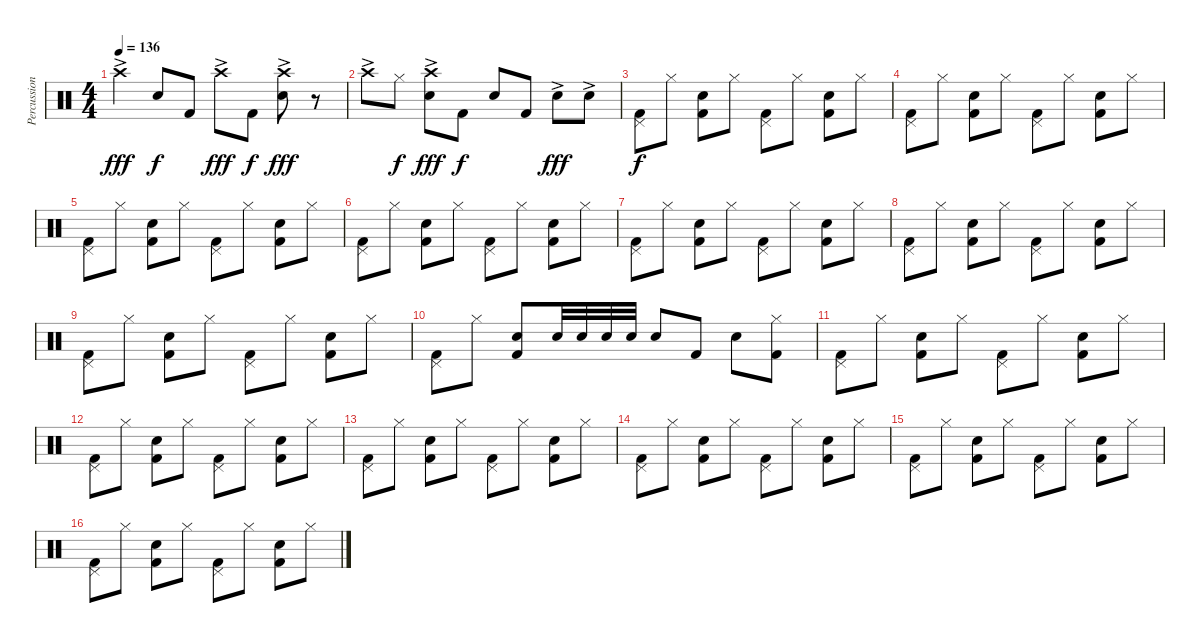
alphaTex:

\track ("Percussion" "Percussion") {instrument percussion}
\staff {score}
\articulation defaults
\ts (4 4)
\tempo 136
\clef neutral
\ks c "Crash high (hit)"{ac}.4{dy fff} "Snare (hit) 2".8{dy f} "Kick (hit) 2".8 "Crash high (hit)"{ac}.8{dy fff} "Kick (hit) 2".8{dy f}
("Crash high (hit)"{ac} "Snare (hit) 2").8{dy fff} r.8 |
"Crash high (hit)"{ac}.8 "Hi-Hat (closed)".8{dy f} ("Crash high (hit)"{ac} "Snare (hit) 2").8{dy fff} "Kick (hit) 2".8{dy f} "Snare (hit) 2".8 "Kick (hit) 2".8 "Snare (hit) 2"{ac}.8{dy fff} "Snare (hit) 2"{ac}.8 |
("Pedal Hi-Hat (hit)" "Kick (hit) 2").8{dy f} "Hi-Hat (closed)".8 ("Snare (hit) 2" "Kick (hit) 2").8 "Hi-Hat (closed)".8 ("Pedal Hi-Hat (hit)" "Kick (hit) 2").8 "Hi-Hat (closed)".8 ("Snare (hit) 2" "Kick (hit) 2").8 "Hi-Hat (closed)".8 |
("Pedal Hi-Hat (hit)" "Kick (hit) 2").8 "Hi-Hat (closed)".8 ("Snare (hit) 2" "Kick (hit) 2").8 "Hi-Hat (closed)".8 ("Pedal Hi-Hat (hit)" "Kick (hit) 2").8 "Hi-Hat (closed)".8 ("Snare (hit) 2" "Kick (hit) 2").8 "Hi-Hat (closed)".8 |
("Pedal Hi-Hat (hit)" "Kick (hit) 2").8 "Hi-Hat (closed)".8 ("Snare (hit) 2" "Kick (hit) 2").8 "Hi-Hat (closed)".8 ("Pedal Hi-Hat (hit)" "Kick (hit) 2").8 "Hi-Hat (closed)".8 ("Snare (hit) 2" "Kick (hit) 2").8 "Hi-Hat (closed)".8 |
("Pedal Hi-Hat (hit)" "Kick (hit) 2").8 "Hi-Hat (closed)".8 ("Snare (hit) 2" "Kick (hit) 2").8 "Hi-Hat (closed)".8 ("Pedal Hi-Hat (hit)" "Kick (hit) 2").8 "Hi-Hat (closed)".8 ("Snare (hit) 2" "Kick (hit) 2").8 "Hi-Hat (closed)".8 |
("Pedal Hi-Hat (hit)" "Kick (hit) 2").8 "Hi-Hat (closed)".8 ("Snare (hit) 2" "Kick (hit) 2").8 "Hi-Hat (closed)".8 ("Pedal Hi-Hat (hit)" "Kick (hit) 2").8 "Hi-Hat (closed)".8 ("Snare (hit) 2" "Kick (hit) 2").8 "Hi-Hat (closed)".8 |
("Pedal Hi-Hat (hit)" "Kick (hit) 2").8 "Hi-Hat (closed)".8 ("Snare (hit) 2" "Kick (hit) 2").8 "Hi-Hat (closed)".8 ("Pedal Hi-Hat (hit)" "Kick (hit) 2").8 "Hi-Hat (closed)".8 ("Snare (hit) 2" "Kick (hit) 2").8 "Hi-Hat (closed)".8 |
("Pedal Hi-Hat (hit)" "Kick (hit) 2").8 "Hi-Hat (closed)".8 ("Snare (hit) 2" "Kick (hit) 2").8 "Hi-Hat (closed)".8 ("Pedal Hi-Hat (hit)" "Kick (hit) 2").8 "Hi-Hat (closed)".8 ("Snare (hit) 2" "Kick (hit) 2").8 "Hi-Hat (closed)".8 |
("Pedal Hi-Hat (hit)" "Kick (hit) 2").8 "Hi-Hat (closed)".8 ("Snare (hit) 2" "Kick (hit) 2").8 "Snare (hit) 2".32 "Snare (hit) 2".32 "Snare (hit) 2".32 "Snare (hit) 2".32 "Snare (hit) 2".8 "Kick (hit) 2".8 "Snare (hit) 2".8 ("Hi-Hat (closed)" "Kick (hit) 2").8 |
("Pedal Hi-Hat (hit)" "Kick (hit) 2").8 "Hi-Hat (closed)".8 ("Snare (hit) 2" "Kick (hit) 2").8 "Hi-Hat (closed)".8 ("Pedal Hi-Hat (hit)" "Kick (hit) 2").8 "Hi-Hat (closed)".8 ("Snare (hit) 2" "Kick (hit) 2").8 "Hi-Hat (closed)".8 |
("Pedal Hi-Hat (hit)" "Kick (hit) 2").8 "Hi-Hat (closed)".8 ("Snare (hit) 2" "Kick (hit) 2").8 "Hi-Hat (closed)".8 ("Pedal Hi-Hat (hit)" "Kick (hit) 2").8 "Hi-Hat (closed)".8 ("Snare (hit) 2" "Kick (hit) 2").8 "Hi-Hat (closed)".8 |
("Pedal Hi-Hat (hit)" "Kick (hit) 2").8 "Hi-Hat (closed)".8 ("Snare (hit) 2" "Kick (hit) 2").8 "Hi-Hat (closed)".8 ("Pedal Hi-Hat (hit)" "Kick (hit) 2").8 "Hi-Hat (closed)".8 ("Snare (hit) 2" "Kick (hit) 2").8 "Hi-Hat (closed)".8 |
("Pedal Hi-Hat (hit)" "Kick (hit) 2").8 "Hi-Hat (closed)".8 ("Snare (hit) 2" "Kick (hit) 2").8 "Hi-Hat (closed)".8 ("Pedal Hi-Hat (hit)" "Kick (hit) 2").8 "Hi-Hat (closed)".8 ("Snare (hit) 2" "Kick (hit) 2").8 "Hi-Hat (closed)".8 |
("Pedal Hi-Hat (hit)" "Kick (hit) 2").8 "Hi-Hat (closed)".8 ("Snare (hit) 2" "Kick (hit) 2").8 "Hi-Hat (closed)".8 ("Pedal Hi-Hat (hit)" "Kick (hit) 2").8 "Hi-Hat (closed)".8 ("Snare (hit) 2" "Kick (hit) 2").8 "Hi-Hat (closed)".8 |
("Pedal Hi-Hat (hit)" "Kick (hit) 2").8 "Hi-Hat (closed)".8 ("Snare (hit) 2" "Kick (hit) 2").8 "Hi-Hat (closed)".8 ("Pedal Hi-Hat (hit)" "Kick (hit) 2").8 "Hi-Hat (closed)".8 ("Snare (hit) 2" "Kick (hit) 2").8 "Hi-Hat (closed)".8
